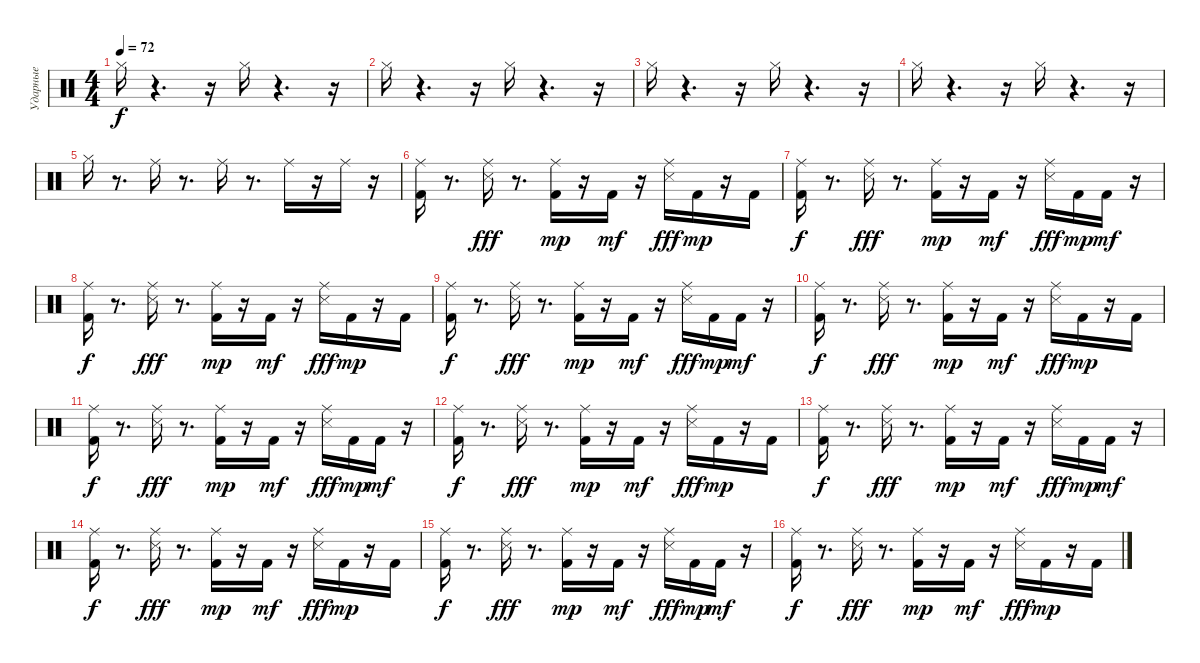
\track ("Ударные" "Ударные") {instrument percussion}
\staff {score}
\articulation defaults
\ts (4 4)
\tempo 72
\clef neutral
\ks c "Hi-Hat (closed)".16{dy f}
r.4{d} r.16 "Hi-Hat (closed)".16 r.4{d} r.16 |
"Hi-Hat (closed)".16 r.4{d} r.16 "Hi-Hat (closed)".16 r.4{d} r.16 |
"Hi-Hat (closed)".16 r.4{d} r.16 "Hi-Hat (closed)".16 r.4{d} r.16 |
"Hi-Hat (closed)".16 r.4{d} r.16 "Hi-Hat (closed)".16 r.4{d} r.16 |
"Hi-Hat (closed)".16 r.8{d} "Ride (middle)".16 r.8{d} "Ride (middle)".16 r.8{d} "Ride (middle)".16 r.16 "Ride (middle)".16 r.16 |
("Kick (hit) 2" "Ride (middle)").16 r.8{d} ("Snare (side stick) 3" "Ride (middle)").16{dy fff} r.8{d} ("Kick (hit) 2" "Ride (middle)").16{dy mp} r.16 "Kick (hit) 2".16{dy mf} r.16 ("Snare (side stick) 3" "Ride (middle)").16{dy fff} "Kick (hit) 2".16{dy mp} r.16 "Kick (hit) 2".16 |
("Kick (hit) 2" "Ride (middle)").16{dy f} r.8{d} ("Snare (side stick) 3" "Ride (middle)").16{dy fff} r.8{d} ("Kick (hit) 2" "Ride (middle)").16{dy mp} r.16 "Kick (hit) 2".16{dy mf} r.16 ("Snare (side stick) 3" "Ride (middle)").16{dy fff} "Kick (hit) 2".16{dy mp} "Kick (hit) 2".16{dy mf} r.16 |
("Kick (hit) 2" "Ride (middle)").16{dy f} r.8{d} ("Snare (side stick) 3" "Ride (middle)").16{dy fff} r.8{d} ("Kick (hit) 2" "Ride (middle)").16{dy mp} r.16 "Kick (hit) 2".16{dy mf} r.16 ("Snare (side stick) 3" "Ride (middle)").16{dy fff} "Kick (hit) 2".16{dy mp} r.16 "Kick (hit) 2".16 |
("Kick (hit) 2" "Ride (middle)").16{dy f} r.8{d} ("Snare (side stick) 3" "Ride (middle)").16{dy fff} r.8{d} ("Kick (hit) 2" "Ride (middle)").16{dy mp} r.16 "Kick (hit) 2".16{dy mf} r.16 ("Snare (side stick) 3" "Ride (middle)").16{dy fff} "Kick (hit) 2".16{dy mp} "Kick (hit) 2".16{dy mf} r.16 |
("Kick (hit) 2" "Ride (middle)").16{dy f} r.8{d} ("Snare (side stick) 3" "Ride (middle)").16{dy fff} r.8{d} ("Kick (hit) 2" "Ride (middle)").16{dy mp} r.16 "Kick (hit) 2".16{dy mf} r.16 ("Snare (side stick) 3" "Ride (middle)").16{dy fff} "Kick (hit) 2".16{dy mp} r.16 "Kick (hit) 2".16 |
("Kick (hit) 2" "Ride (middle)").16{dy f} r.8{d} ("Snare (side stick) 3" "Ride (middle)").16{dy fff} r.8{d} ("Kick (hit) 2" "Ride (middle)").16{dy mp} r.16 "Kick (hit) 2".16{dy mf} r.16 ("Snare (side stick) 3" "Ride (middle)").16{dy fff} "Kick (hit) 2".16{dy mp} "Kick (hit) 2".16{dy mf} r.16 |
("Kick (hit) 2" "Ride (middle)").16{dy f} r.8{d} ("Snare (side stick) 3" "Ride (middle)").16{dy fff} r.8{d} ("Kick (hit) 2" "Ride (middle)").16{dy mp} r.16 "Kick (hit) 2".16{dy mf} r.16 ("Snare (side stick) 3" "Ride (middle)").16{dy fff} "Kick (hit) 2".16{dy mp} r.16 "Kick (hit) 2".16 |
("Kick (hit) 2" "Ride (middle)").16{dy f} r.8{d} ("Snare (side stick) 3" "Ride (middle)").16{dy fff} r.8{d} ("Kick (hit) 2" "Ride (middle)").16{dy mp} r.16 "Kick (hit) 2".16{dy mf} r.16 ("Snare (side stick) 3" "Ride (middle)").16{dy fff} "Kick (hit) 2".16{dy mp} "Kick (hit) 2".16{dy mf} r.16 |
("Kick (hit) 2" "Ride (middle)").16{dy f} r.8{d} ("Snare (side stick) 3" "Ride (middle)").16{dy fff} r.8{d} ("Kick (hit) 2" "Ride (middle)").16{dy mp} r.16 "Kick (hit) 2".16{dy mf} r.16 ("Snare (side stick) 3" "Ride (middle)").16{dy fff} "Kick (hit) 2".16{dy mp} r.16 "Kick (hit) 2".16 |
("Kick (hit) 2" "Ride (middle)").16{dy f} r.8{d} ("Snare (side stick) 3" "Ride (middle)").16{dy fff} r.8{d} ("Kick (hit) 2" "Ride (middle)").16{dy mp} r.16 "Kick (hit) 2".16{dy mf} r.16 ("Snare (side stick) 3" "Ride (middle)").16{dy fff} "Kick (hit) 2".16{dy mp} "Kick (hit) 2".16{dy mf} r.16 |
("Kick (hit) 2" "Ride (middle)").16{dy f} r.8{d} ("Snare (side stick) 3" "Ride (middle)").16{dy fff} r.8{d} ("Kick (hit) 2" "Ride (middle)").16{dy mp} r.16 "Kick (hit) 2".16{dy mf} r.16 ("Snare (side stick) 3" "Ride (middle)").16{dy fff} "Kick (hit) 2".16{dy mp} r.16 "Kick (hit) 2".16
